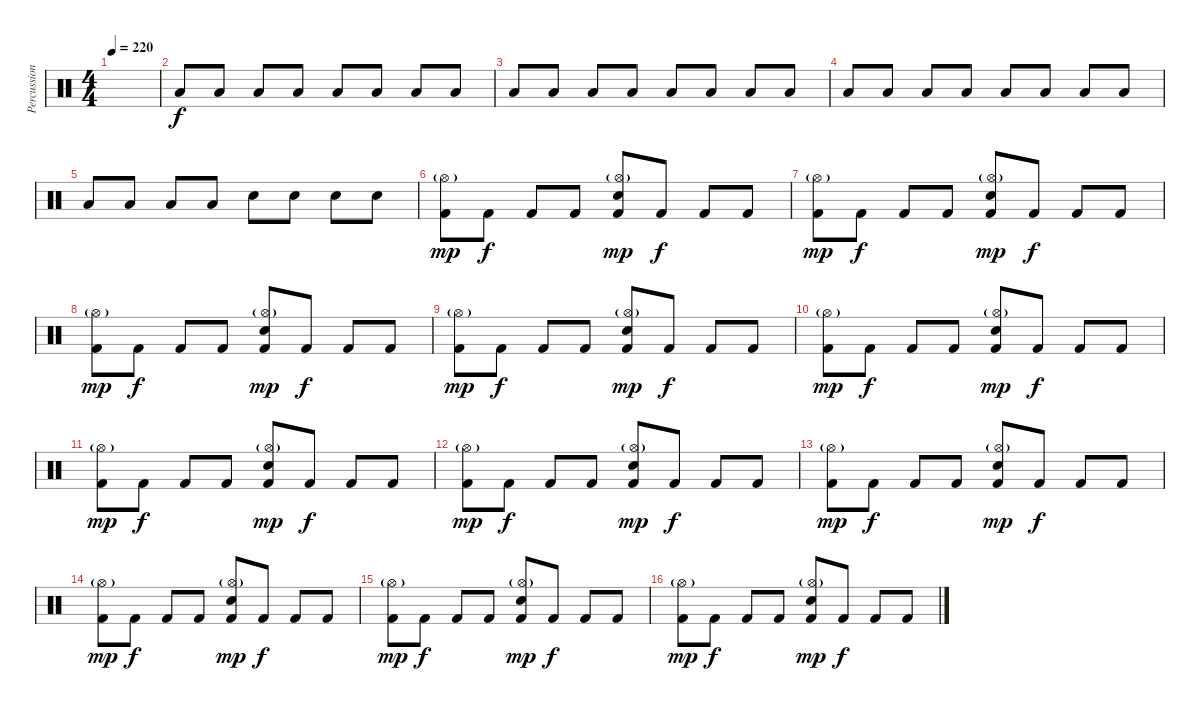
\track ("Percussions" "Percussion") {instrument percussion}
\staff {score}
\articulation defaults
\ts (4 4)
\tempo 220
\clef neutral
\ks c
|
"Low Floor Tom (hit)".8{volume 8} "Low Floor Tom (hit)".8 "Low Floor Tom (hit)".8 "Low Floor Tom (hit)".8 "Low Floor Tom (hit)".8{volume 9} "Low Floor Tom (hit)".8 "Low Floor Tom (hit)".8 "Low Floor Tom (hit)".8 |
"Low Floor Tom (hit)".8{volume 10} "Low Floor Tom (hit)".8 "Low Floor Tom (hit)".8 "Low Floor Tom (hit)".8 "Low Floor Tom (hit)".8{volume 11} "Low Floor Tom (hit)".8 "Low Floor Tom (hit)".8 "Low Floor Tom (hit)".8 |
"Low Floor Tom (hit)".8{volume 12} "Low Floor Tom (hit)".8 "Low Floor Tom (hit)".8 "Low Floor Tom (hit)".8 "Low Floor Tom (hit)".8{volume 13} "Low Floor Tom (hit)".8 "Low Floor Tom (hit)".8 "Low Floor Tom (hit)".8 |
"Low Floor Tom (hit)".8{volume 14} "Low Floor Tom (hit)".8 "Low Floor Tom (hit)".8 "Low Floor Tom (hit)".8 "Electric Snare (hit)".8{volume 16} "Electric Snare (hit)".8 "Electric Snare (hit)".8 "Electric Snare (hit)".8 |
("Hi-Hat (open)"{g} "Kick (hit) 2").8{dy mp} "Kick (hit) 2".8{dy f} "Kick (hit) 2".8 "Kick (hit) 2".8 ("Hi-Hat (open)"{g} "Electric Snare (hit)" "Kick (hit) 2").8{dy mp} "Kick (hit) 2".8{dy f} "Kick (hit) 2".8 "Kick (hit) 2".8 |
("Hi-Hat (open)"{g} "Kick (hit) 2").8{dy mp} "Kick (hit) 2".8{dy f} "Kick (hit) 2".8 "Kick (hit) 2".8 ("Hi-Hat (open)"{g} "Electric Snare (hit)" "Kick (hit) 2").8{dy mp} "Kick (hit) 2".8{dy f} "Kick (hit) 2".8 "Kick (hit) 2".8 |
("Hi-Hat (open)"{g} "Kick (hit) 2").8{dy mp} "Kick (hit) 2".8{dy f} "Kick (hit) 2".8 "Kick (hit) 2".8 ("Hi-Hat (open)"{g} "Electric Snare (hit)" "Kick (hit) 2").8{dy mp} "Kick (hit) 2".8{dy f} "Kick (hit) 2".8 "Kick (hit) 2".8 |
("Hi-Hat (open)"{g} "Kick (hit) 2").8{dy mp} "Kick (hit) 2".8{dy f} "Kick (hit) 2".8 "Kick (hit) 2".8 ("Hi-Hat (open)"{g} "Electric Snare (hit)" "Kick (hit) 2").8{dy mp} "Kick (hit) 2".8{dy f} "Kick (hit) 2".8 "Kick (hit) 2".8 |
("Hi-Hat (open)"{g} "Kick (hit) 2").8{dy mp} "Kick (hit) 2".8{dy f} "Kick (hit) 2".8 "Kick (hit) 2".8 ("Hi-Hat (open)"{g} "Electric Snare (hit)" "Kick (hit) 2").8{dy mp} "Kick (hit) 2".8{dy f} "Kick (hit) 2".8 "Kick (hit) 2".8 |
("Hi-Hat (open)"{g} "Kick (hit) 2").8{dy mp} "Kick (hit) 2".8{dy f} "Kick (hit) 2".8 "Kick (hit) 2".8 ("Hi-Hat (open)"{g} "Electric Snare (hit)" "Kick (hit) 2").8{dy mp} "Kick (hit) 2".8{dy f} "Kick (hit) 2".8 "Kick (hit) 2".8 |
("Hi-Hat (open)"{g} "Kick (hit) 2").8{dy mp} "Kick (hit) 2".8{dy f} "Kick (hit) 2".8 "Kick (hit) 2".8 ("Hi-Hat (open)"{g} "Electric Snare (hit)" "Kick (hit) 2").8{dy mp} "Kick (hit) 2".8{dy f} "Kick (hit) 2".8 "Kick (hit) 2".8 |
("Hi-Hat (open)"{g} "Kick (hit) 2").8{dy mp} "Kick (hit) 2".8{dy f} "Kick (hit) 2".8 "Kick (hit) 2".8 ("Hi-Hat (open)"{g} "Electric Snare (hit)" "Kick (hit) 2").8{dy mp} "Kick (hit) 2".8{dy f} "Kick (hit) 2".8 "Kick (hit) 2".8 |
("Hi-Hat (open)"{g} "Kick (hit) 2").8{dy mp} "Kick (hit) 2".8{dy f} "Kick (hit) 2".8 "Kick (hit) 2".8 ("Hi-Hat (open)"{g} "Electric Snare (hit)" "Kick (hit) 2").8{dy mp} "Kick (hit) 2".8{dy f} "Kick (hit) 2".8 "Kick (hit) 2".8 |
("Hi-Hat (open)"{g} "Kick (hit) 2").8{dy mp} "Kick (hit) 2".8{dy f} "Kick (hit) 2".8 "Kick (hit) 2".8 ("Hi-Hat (open)"{g} "Electric Snare (hit)" "Kick (hit) 2").8{dy mp} "Kick (hit) 2".8{dy f} "Kick (hit) 2".8 "Kick (hit) 2".8 |
("Hi-Hat (open)"{g} "Kick (hit) 2").8{dy mp} "Kick (hit) 2".8{dy f} "Kick (hit) 2".8 "Kick (hit) 2".8 ("Hi-Hat (open)"{g} "Electric Snare (hit)" "Kick (hit) 2").8{dy mp} "Kick (hit) 2".8{dy f} "Kick (hit) 2".8 "Kick (hit) 2".8
